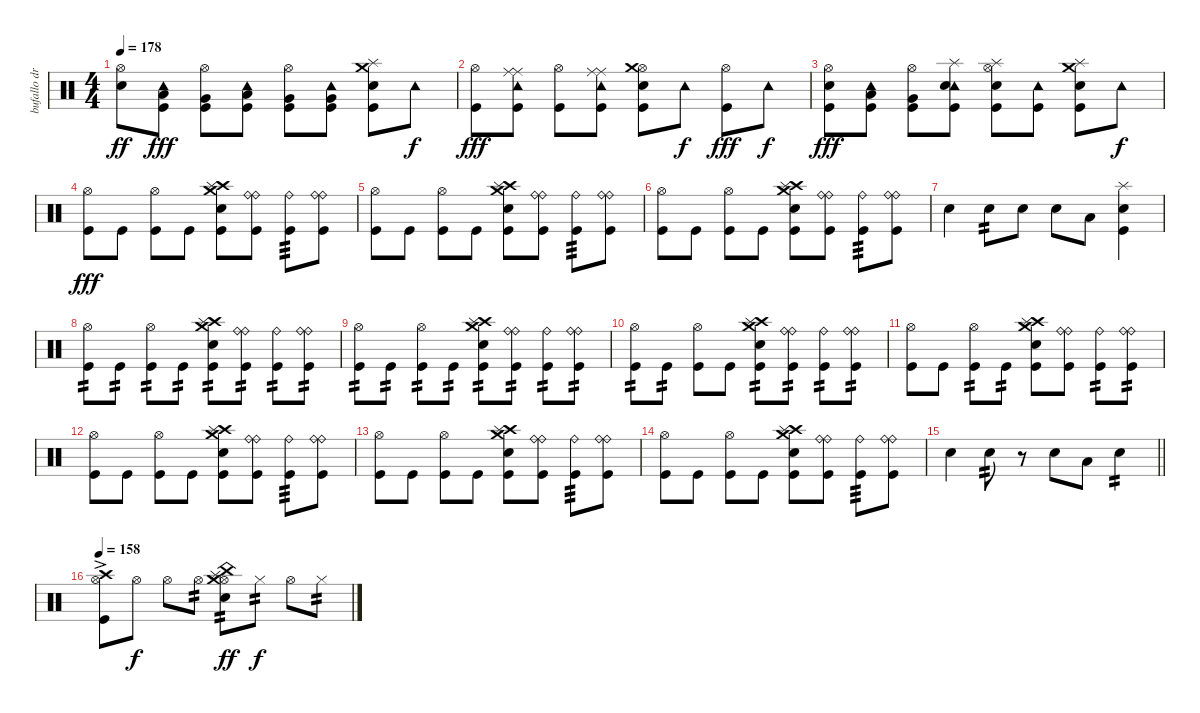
\track ("bufallo drums" "bufallo dr") {instrument percussion}
\staff {score}
\articulation defaults
\ts (4 4)
\tempo 178
\clef neutral
\ks c
("Hi-Hat (open)" "Electric Snare (hit)").8{dy ff} ("Tambourine (hit)" "Low Tom (hit)" "Kick (hit)").8{dy fff} ("Hi-Hat (open)" "Very Low Tom (hit)" "Kick (hit)").8 ("Tambourine (hit)" "Low Tom (hit)" "Kick (hit)").8 ("Hi-Hat (open)" "Very Low Tom (hit)" "Kick (hit)").8 ("Tambourine (hit)" "Very Low Tom (hit)" "Kick (hit)").8 ("Splash (hit)" "Crash medium (hit)" "Electric Snare (hit)" "Kick (hit)").8 "Tambourine (hit)".8{dy f} |
("Hi-Hat (open)" "Kick (hit)").8{dy fff} ("Tambourine (hit)" "Ride (middle)" "Ride (middle)" "Kick (hit)").8 ("Hi-Hat (open)" "Kick (hit)").8 ("Tambourine (hit)" "Ride (middle)" "Ride (middle)" "Kick (hit)").8 ("Hi-Hat (open)" "Crash medium (hit)" "Electric Snare (hit)" "Kick (hit)").8 "Tambourine (hit)".8{dy f} ("Hi-Hat (open)" "Kick (hit)").8{dy fff} "Tambourine (hit)".8{dy f} |
("Hi-Hat (open)" "Electric Snare (hit)" "Kick (hit)").8{dy fff} ("Tambourine (hit)" "Low Tom (hit)" "Kick (hit)").8 ("Hi-Hat (open)" "Very Low Tom (hit)" "Kick (hit)").8 ("Tambourine (hit)" "Splash (hit)" "Electric Snare (hit)" "Kick (hit)").8 ("Hi-Hat (open)" "Splash (hit)" "Electric Snare (hit)" "Kick (hit)").8 ("Tambourine (hit)" "Kick (hit)").8 ("Splash (hit)" "Crash medium (hit)" "Electric Snare (hit)" "Kick (hit)").8 "Tambourine (hit)".8{dy f} |
("Hi-Hat (open)" "Kick (hit)").8{dy fff} "Kick (hit)".8 ("Hi-Hat (open)" "Kick (hit)").8 "Kick (hit)".8 ("Crash medium (hit)" "Crash high (hit)" "Splash (hit)" "Electric Snare (hit)" "Kick (hit)").8 ("Ride (bell)" "Ride (bell)" "Kick (hit)").8 ("Ride (bell)" "Kick (hit)").8{tp 3} ("Ride (bell)" "Ride (bell)" "Kick (hit)").8 |
("Hi-Hat (open)" "Kick (hit)").8 "Kick (hit)".8 ("Hi-Hat (open)" "Kick (hit)").8 "Kick (hit)".8 ("Crash medium (hit)" "Crash high (hit)" "Splash (hit)" "Electric Snare (hit)" "Kick (hit)").8 ("Ride (bell)" "Ride (bell)" "Kick (hit)").8 ("Ride (bell)" "Kick (hit)").8{tp 3} ("Ride (bell)" "Ride (bell)" "Kick (hit)").8 |
("Hi-Hat (open)" "Kick (hit)").8 "Kick (hit)".8 ("Hi-Hat (open)" "Kick (hit)").8 "Kick (hit)".8 ("Crash medium (hit)" "Crash high (hit)" "Splash (hit)" "Electric Snare (hit)" "Kick (hit)").8 ("Ride (bell)" "Ride (bell)" "Kick (hit)").8 ("Ride (bell)" "Kick (hit)").8{tp 3} ("Ride (bell)" "Ride (bell)" "Kick (hit)").8 |
"Electric Snare (hit)".4 "Electric Snare (hit)".8{tp 2} "Electric Snare (hit)".8 "Electric Snare (hit)".8 "Low Floor Tom (hit)".8 ("Splash (hit)" "Electric Snare (hit)" "Kick (hit)").4 |
("Hi-Hat (open)" "Kick (hit)").8{tp 2} "Kick (hit)".8{tp 2} ("Hi-Hat (open)" "Kick (hit)").8{tp 2} "Kick (hit)".8{tp 2} ("Crash medium (hit)" "Crash high (hit)" "Splash (hit)" "Electric Snare (hit)" "Kick (hit)").8{tp 2} ("Ride (bell)" "Ride (bell)" "Kick (hit)").8{tp 2} ("Ride (bell)" "Kick (hit)").8{tp 2} ("Ride (bell)" "Ride (bell)" "Kick (hit)").8{tp 2} |
("Hi-Hat (open)" "Kick (hit)").8{tp 2} "Kick (hit)".8{tp 2} ("Hi-Hat (open)" "Kick (hit)").8{tp 2} "Kick (hit)".8{tp 2} ("Crash medium (hit)" "Crash high (hit)" "Splash (hit)" "Electric Snare (hit)" "Kick (hit)").8{tp 2} ("Ride (bell)" "Ride (bell)" "Kick (hit)").8{tp 2} ("Ride (bell)" "Kick (hit)").8{tp 2} ("Ride (bell)" "Ride (bell)" "Kick (hit)").8{tp 2} |
("Hi-Hat (open)" "Kick (hit)").8{tp 2} "Kick (hit)".8{tp 2} ("Hi-Hat (open)" "Kick (hit)").8 "Kick (hit)".8 ("Crash medium (hit)" "Crash high (hit)" "Splash (hit)" "Electric Snare (hit)" "Kick (hit)").8{tp 2} ("Ride (bell)" "Ride (bell)" "Kick (hit)").8{tp 2} ("Ride (bell)" "Kick (hit)").8{tp 2} ("Ride (bell)" "Ride (bell)" "Kick (hit)").8{tp 2} |
("Hi-Hat (open)" "Kick (hit)").8 "Kick (hit)".8 ("Hi-Hat (open)" "Kick (hit)").8{tp 2} "Kick (hit)".8{tp 2} ("Crash medium (hit)" "Crash high (hit)" "Splash (hit)" "Electric Snare (hit)" "Kick (hit)").8 ("Ride (bell)" "Ride (bell)" "Kick (hit)").8 ("Ride (bell)" "Kick (hit)").8{tp 2} ("Ride (bell)" "Ride (bell)" "Kick (hit)").8{tp 2} |
("Hi-Hat (open)" "Kick (hit)").8 "Kick (hit)".8 ("Hi-Hat (open)" "Kick (hit)").8 "Kick (hit)".8 ("Crash medium (hit)" "Crash high (hit)" "Splash (hit)" "Electric Snare (hit)" "Kick (hit)").8 ("Ride (bell)" "Ride (bell)" "Kick (hit)").8 ("Ride (bell)" "Kick (hit)").8{tp 3} ("Ride (bell)" "Ride (bell)" "Kick (hit)").8 |
("Hi-Hat (open)" "Kick (hit)").8 "Kick (hit)".8 ("Hi-Hat (open)" "Kick (hit)").8 "Kick (hit)".8 ("Crash medium (hit)" "Crash high (hit)" "Splash (hit)" "Electric Snare (hit)" "Kick (hit)").8 ("Ride (bell)" "Ride (bell)" "Kick (hit)").8 ("Ride (bell)" "Kick (hit)").8{tp 3} ("Ride (bell)" "Ride (bell)" "Kick (hit)").8 |
("Hi-Hat (open)" "Kick (hit)").8 "Kick (hit)".8 ("Hi-Hat (open)" "Kick (hit)").8 "Kick (hit)".8 ("Crash medium (hit)" "Crash high (hit)" "Splash (hit)" "Electric Snare (hit)" "Kick (hit)").8 ("Ride (bell)" "Ride (bell)" "Kick (hit)").8 ("Ride (bell)" "Kick (hit)").8{tp 3} ("Ride (bell)" "Ride (bell)" "Kick (hit)").8 |
\barLineRight lightlight "Electric Snare (hit)".4 "Electric Snare (hit)".8{tp 2}
r.8 "Electric Snare (hit)".8 "Low Floor Tom (hit)".8 "Electric Snare (hit)".4{tp 2} |
\tempo 158
("Hi-Hat (open)" "Crash high (hit)" "Kick (hit)"{ac}).8{volume 15} "Hi-Hat (open)".8{dy f} "Hi-Hat (open)".8 "Hi-Hat (open)".8{tp 2} ("Hi-Hat (open)" "Electric Snare (hit)" "Splash (hit)" "China (hit)" "Crash medium (hit)").8{tp 2 dy ff} "Hi-Hat (closed)".8{tp 2 dy f} "Hi-Hat (open)".8 "Hi-Hat (closed)".8{tp 2}
